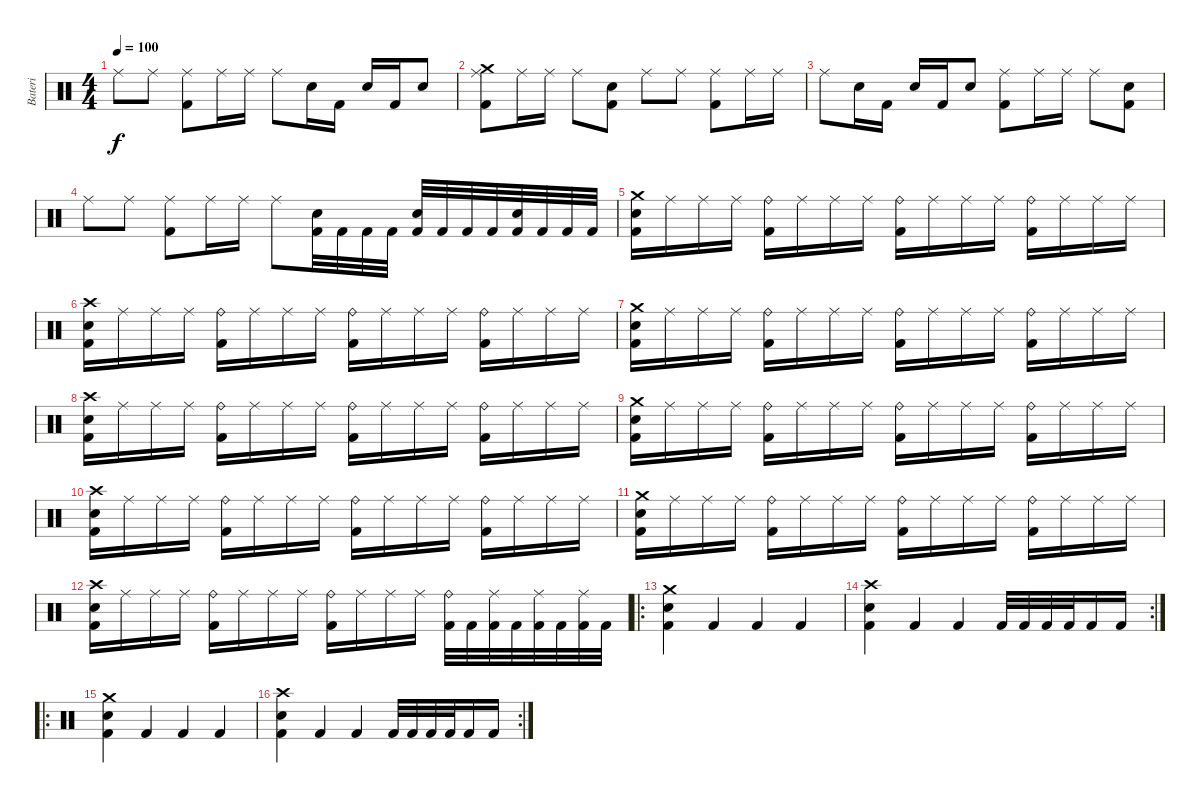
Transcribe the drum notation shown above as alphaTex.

\track ("Bateri" "Bateri") {instrument percussion}
\staff {score}
\articulation defaults
\ts (4 4)
\tempo 100
\clef neutral
\ks c "Ride (middle)".8{dy f} "Ride (middle)".8
("Ride (middle)" "Kick (hit) 2").8 "Ride (middle)".16 "Ride (middle)".16 "Ride (middle)".8 "Snare (hit) 2".16 "Kick (hit) 2".16 "Snare (hit) 2".16 "Kick (hit) 2".16 "Snare (hit) 2".8 |
("Crash medium (hit)" "Ride (middle)" "Kick (hit) 2").8 "Ride (middle)".16 "Ride (middle)".16 "Ride (middle)".8 ("Snare (hit) 2" "Kick (hit) 2").8 "Ride (middle)".8 "Ride (middle)".8 ("Ride (middle)" "Kick (hit) 2").8 "Ride (middle)".16 "Ride (middle)".16 |
"Ride (middle)".8 "Snare (hit) 2".16 "Kick (hit) 2".16 "Snare (hit) 2".16 "Kick (hit) 2".16 "Snare (hit) 2".8 ("Ride (middle)" "Kick (hit) 2").8 "Ride (middle)".16 "Ride (middle)".16 "Ride (middle)".8 ("Snare (hit) 2" "Kick (hit) 2").8 |
\section ("" "")
"Ride (middle)".8 "Ride (middle)".8 ("Ride (middle)" "Kick (hit) 2").8 "Ride (middle)".16 "Ride (middle)".16 "Ride (middle)".8 ("Snare (hit) 2" "Kick (hit) 2").32 "Kick (hit) 2".32 "Kick (hit) 2".32 "Kick (hit) 2".32 ("Snare (hit) 2" "Kick (hit) 2").32 "Kick (hit) 2".32 "Kick (hit) 2".32 "Kick (hit) 2".32 ("Snare (hit) 2" "Kick (hit) 2").32 "Kick (hit) 2".32 "Kick (hit) 2".32 "Kick (hit) 2".32 |
("Crash medium (hit)" "Snare (hit) 2" "Kick (hit) 2").16 "Ride (middle)".16 "Ride (middle)".16 "Ride (middle)".16 ("Ride (bell)" "Kick (hit) 2").16 "Ride (middle)".16 "Ride (middle)".16 "Ride (middle)".16 ("Ride (bell)" "Kick (hit) 2").16 "Ride (middle)".16 "Ride (middle)".16 "Ride (middle)".16 ("Ride (bell)" "Kick (hit) 2").16 "Ride (middle)".16 "Ride (middle)".16 "Ride (middle)".16 |
("Crash high (hit)" "Snare (hit) 2" "Kick (hit) 2").16 "Ride (middle)".16 "Ride (middle)".16 "Ride (middle)".16 ("Ride (bell)" "Kick (hit) 2").16 "Ride (middle)".16 "Ride (middle)".16 "Ride (middle)".16 ("Ride (bell)" "Kick (hit) 2").16 "Ride (middle)".16 "Ride (middle)".16 "Ride (middle)".16 ("Ride (bell)" "Kick (hit) 2").16 "Ride (middle)".16 "Ride (middle)".16 "Ride (middle)".16 |
("Crash medium (hit)" "Snare (hit) 2" "Kick (hit) 2").16 "Ride (middle)".16 "Ride (middle)".16 "Ride (middle)".16 ("Ride (bell)" "Kick (hit) 2").16 "Ride (middle)".16 "Ride (middle)".16 "Ride (middle)".16 ("Ride (bell)" "Kick (hit) 2").16 "Ride (middle)".16 "Ride (middle)".16 "Ride (middle)".16 ("Ride (bell)" "Kick (hit) 2").16 "Ride (middle)".16 "Ride (middle)".16 "Ride (middle)".16 |
("Crash high (hit)" "Snare (hit) 2" "Kick (hit) 2").16 "Ride (middle)".16 "Ride (middle)".16 "Ride (middle)".16 ("Ride (bell)" "Kick (hit) 2").16 "Ride (middle)".16 "Ride (middle)".16 "Ride (middle)".16 ("Ride (bell)" "Kick (hit) 2").16 "Ride (middle)".16 "Ride (middle)".16 "Ride (middle)".16 ("Ride (bell)" "Kick (hit) 2").16 "Ride (middle)".16 "Ride (middle)".16 "Ride (middle)".16 |
("Crash medium (hit)" "Snare (hit) 2" "Kick (hit) 2").16 "Ride (middle)".16 "Ride (middle)".16 "Ride (middle)".16 ("Ride (bell)" "Kick (hit) 2").16 "Ride (middle)".16 "Ride (middle)".16 "Ride (middle)".16 ("Ride (bell)" "Kick (hit) 2").16 "Ride (middle)".16 "Ride (middle)".16 "Ride (middle)".16 ("Ride (bell)" "Kick (hit) 2").16 "Ride (middle)".16 "Ride (middle)".16 "Ride (middle)".16 |
("Crash high (hit)" "Snare (hit) 2" "Kick (hit) 2").16 "Ride (middle)".16 "Ride (middle)".16 "Ride (middle)".16 ("Ride (bell)" "Kick (hit) 2").16 "Ride (middle)".16 "Ride (middle)".16 "Ride (middle)".16 ("Ride (bell)" "Kick (hit) 2").16 "Ride (middle)".16 "Ride (middle)".16 "Ride (middle)".16 ("Ride (bell)" "Kick (hit) 2").16 "Ride (middle)".16 "Ride (middle)".16 "Ride (middle)".16 |
("Crash medium (hit)" "Snare (hit) 2" "Kick (hit) 2").16 "Ride (middle)".16 "Ride (middle)".16 "Ride (middle)".16 ("Ride (bell)" "Kick (hit) 2").16 "Ride (middle)".16 "Ride (middle)".16 "Ride (middle)".16 ("Ride (bell)" "Kick (hit) 2").16 "Ride (middle)".16 "Ride (middle)".16 "Ride (middle)".16 ("Ride (bell)" "Kick (hit) 2").16 "Ride (middle)".16 "Ride (middle)".16 "Ride (middle)".16 |
("Crash high (hit)" "Snare (hit) 2" "Kick (hit) 2").16 "Ride (middle)".16 "Ride (middle)".16 "Ride (middle)".16 ("Ride (bell)" "Kick (hit) 2").16 "Ride (middle)".16 "Ride (middle)".16 "Ride (middle)".16 ("Ride (bell)" "Kick (hit) 2").16 "Ride (middle)".16 "Ride (middle)".16 "Ride (middle)".16 ("Ride (bell)" "Kick (hit) 2").32 "Kick (hit) 2".32 ("Ride (middle)" "Kick (hit) 2").32 "Kick (hit) 2".32 ("Ride (middle)" "Kick (hit) 2").32 "Kick (hit) 2".32 ("Ride (middle)" "Kick (hit) 2").32 "Kick (hit) 2".32 |
\ro
("Crash medium (hit)" "Snare (hit) 2" "Kick (hit) 2").4 "Kick (hit) 2".4 "Kick (hit) 2".4 "Kick (hit) 2".4 |
\rc 2
("Crash high (hit)" "Snare (hit) 2" "Kick (hit) 2").4 "Kick (hit) 2".4 "Kick (hit) 2".4 "Kick (hit) 2".32 "Kick (hit) 2".32 "Kick (hit) 2".32 "Kick (hit) 2".32 "Kick (hit) 2".16 "Kick (hit) 2".16 |
\ro
\section ("" "")
("Crash medium (hit)" "Snare (hit) 2" "Kick (hit) 2").4 "Kick (hit) 2".4 "Kick (hit) 2".4 "Kick (hit) 2".4 |
\rc 2
("Crash high (hit)" "Snare (hit) 2" "Kick (hit) 2").4 "Kick (hit) 2".4 "Kick (hit) 2".4 "Kick (hit) 2".32 "Kick (hit) 2".32 "Kick (hit) 2".32 "Kick (hit) 2".32 "Kick (hit) 2".16 "Kick (hit) 2".16
